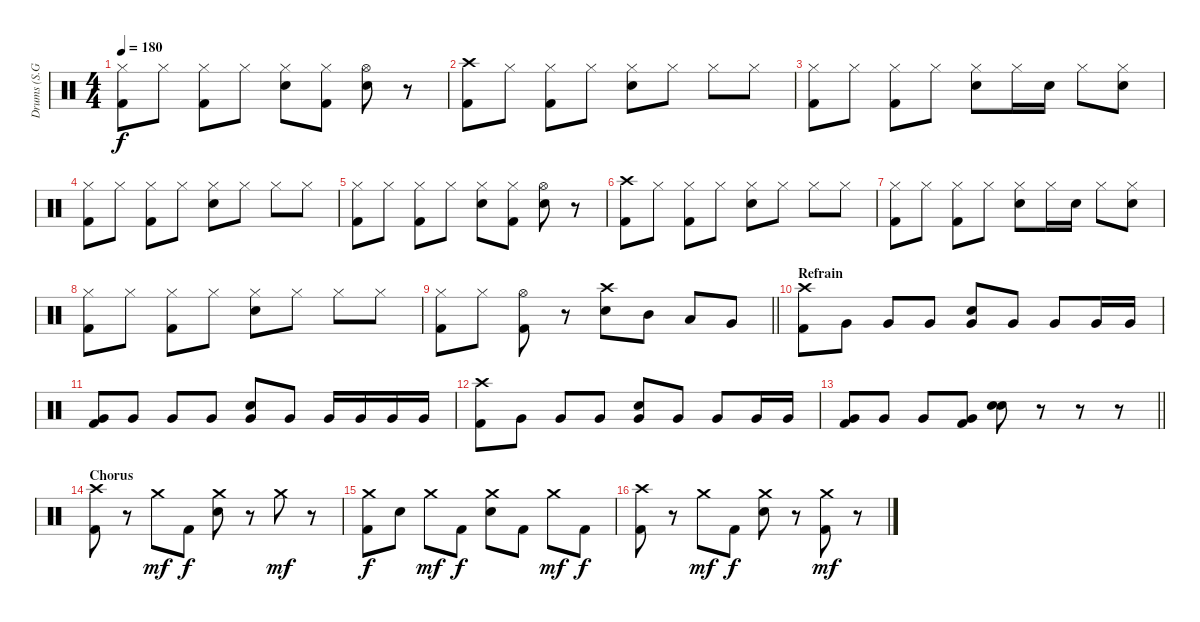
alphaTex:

\track ("Drums (S.G. Yim)" "Drums (S.G") {instrument percussion}
\staff {score}
\articulation defaults
\ts (4 4)
\tempo 180
\clef neutral
\ks c
("Hi-Hat (closed)" "Kick (hit) 2").8{dy f} "Hi-Hat (closed)".8 ("Hi-Hat (closed)" "Kick (hit) 2").8 "Hi-Hat (closed)".8 ("Hi-Hat (closed)" "Snare (hit) 2").8 ("Hi-Hat (closed)" "Kick (hit) 2").8 ("Hi-Hat (open)" "Snare (hit) 2").8 r.8 |
("Crash high (hit)" "Kick (hit) 2").8 "Hi-Hat (closed)".8 ("Hi-Hat (closed)" "Kick (hit) 2").8 "Hi-Hat (closed)".8 ("Hi-Hat (closed)" "Snare (hit) 2").8 "Hi-Hat (closed)".8 "Hi-Hat (closed)".8 "Hi-Hat (closed)".8 |
("Hi-Hat (closed)" "Kick (hit) 2").8 "Hi-Hat (closed)".8 ("Hi-Hat (closed)" "Kick (hit) 2").8 "Hi-Hat (closed)".8 ("Hi-Hat (closed)" "Snare (hit) 2").8 "Hi-Hat (closed)".16 "Snare (hit) 2".16 "Hi-Hat (closed)".8 ("Hi-Hat (closed)" "Snare (hit) 2").8 |
("Hi-Hat (closed)" "Kick (hit) 2").8 "Hi-Hat (closed)".8 ("Hi-Hat (closed)" "Kick (hit) 2").8 "Hi-Hat (closed)".8 ("Hi-Hat (closed)" "Snare (hit) 2").8 "Hi-Hat (closed)".8 "Hi-Hat (closed)".8 "Hi-Hat (closed)".8 |
("Hi-Hat (closed)" "Kick (hit) 2").8 "Hi-Hat (closed)".8 ("Hi-Hat (closed)" "Kick (hit) 2").8 "Hi-Hat (closed)".8 ("Hi-Hat (closed)" "Snare (hit) 2").8 ("Hi-Hat (closed)" "Kick (hit) 2").8 ("Hi-Hat (open)" "Snare (hit) 2").8 r.8 |
("Crash high (hit)" "Kick (hit) 2").8 "Hi-Hat (closed)".8 ("Hi-Hat (closed)" "Kick (hit) 2").8 "Hi-Hat (closed)".8 ("Hi-Hat (closed)" "Snare (hit) 2").8 "Hi-Hat (closed)".8 "Hi-Hat (closed)".8 "Hi-Hat (closed)".8 |
("Hi-Hat (closed)" "Kick (hit) 2").8 "Hi-Hat (closed)".8 ("Hi-Hat (closed)" "Kick (hit) 2").8 "Hi-Hat (closed)".8 ("Hi-Hat (closed)" "Snare (hit) 2").8 "Hi-Hat (closed)".16 "Snare (hit) 2".16 "Hi-Hat (closed)".8 ("Hi-Hat (closed)" "Snare (hit) 2").8 |
("Hi-Hat (closed)" "Kick (hit) 2").8 "Hi-Hat (closed)".8 ("Hi-Hat (closed)" "Kick (hit) 2").8 "Hi-Hat (closed)".8 ("Hi-Hat (closed)" "Snare (hit) 2").8 "Hi-Hat (closed)".8 "Hi-Hat (closed)".8 "Hi-Hat (closed)".8 |
\barLineRight lightlight
("Hi-Hat (closed)" "Kick (hit) 2").8 "Hi-Hat (closed)".8 ("Hi-Hat (open)" "Kick (hit) 2").8 r.8 ("Crash high (hit)" "Snare (hit) 2").8 "Mid Tom (hit)".8 "Low Tom (hit)".8 "Very Low Tom (hit)".8 |
\section ("" "Refrain")
("Crash high (hit)" "Kick (hit) 2").8 "Very Low Tom (hit)".8 "Very Low Tom (hit)".8 "Very Low Tom (hit)".8 ("Snare (hit) 2" "Very Low Tom (hit)").8 "Very Low Tom (hit)".8 "Very Low Tom (hit)".8 "Very Low Tom (hit)".16 "Very Low Tom (hit)".16 |
("Very Low Tom (hit)" "Kick (hit) 2").8 "Very Low Tom (hit)".8 "Very Low Tom (hit)".8 "Very Low Tom (hit)".8 ("Snare (hit) 2" "Very Low Tom (hit)").8 "Very Low Tom (hit)".8 "Very Low Tom (hit)".16 "Very Low Tom (hit)".16 "Very Low Tom (hit)".16 "Very Low Tom (hit)".16 |
("Crash high (hit)" "Kick (hit) 2").8 "Very Low Tom (hit)".8 "Very Low Tom (hit)".8 "Very Low Tom (hit)".8 ("Snare (hit) 2" "Very Low Tom (hit)").8 "Very Low Tom (hit)".8 "Very Low Tom (hit)".8 "Very Low Tom (hit)".16 "Very Low Tom (hit)".16 |
\barLineRight lightlight
("Very Low Tom (hit)" "Kick (hit) 2").8 "Very Low Tom (hit)".8 "Very Low Tom (hit)".8 ("Very Low Tom (hit)" "Kick (hit) 2").8 ("Snare (hit) 2" "Snare (hit) 2").8 r.8 r.8 r.8 |
\section ("" "Chorus")
("Crash high (hit)" "Kick (hit) 2").8 r.8 "Crash medium (hit)".8{dy mf} "Kick (hit) 2".8{dy f} ("Crash medium (hit)" "Snare (hit) 2").8 r.8 "Crash medium (hit)".8{dy mf} r.8 |
("Crash medium (hit)" "Kick (hit) 2").8{dy f} "Snare (hit) 2".8 "Crash medium (hit)".8{dy mf} "Kick (hit) 2".8{dy f} ("Crash medium (hit)" "Snare (hit) 2").8 "Kick (hit) 2".8 "Crash medium (hit)".8{dy mf} "Kick (hit) 2".8{dy f} |
("Crash high (hit)" "Kick (hit) 2").8 r.8 "Crash medium (hit)".8{dy mf} "Kick (hit) 2".8{dy f} ("Crash medium (hit)" "Snare (hit) 2").8 r.8 ("Crash medium (hit)" "Kick (hit) 2").8{dy mf} r.8
